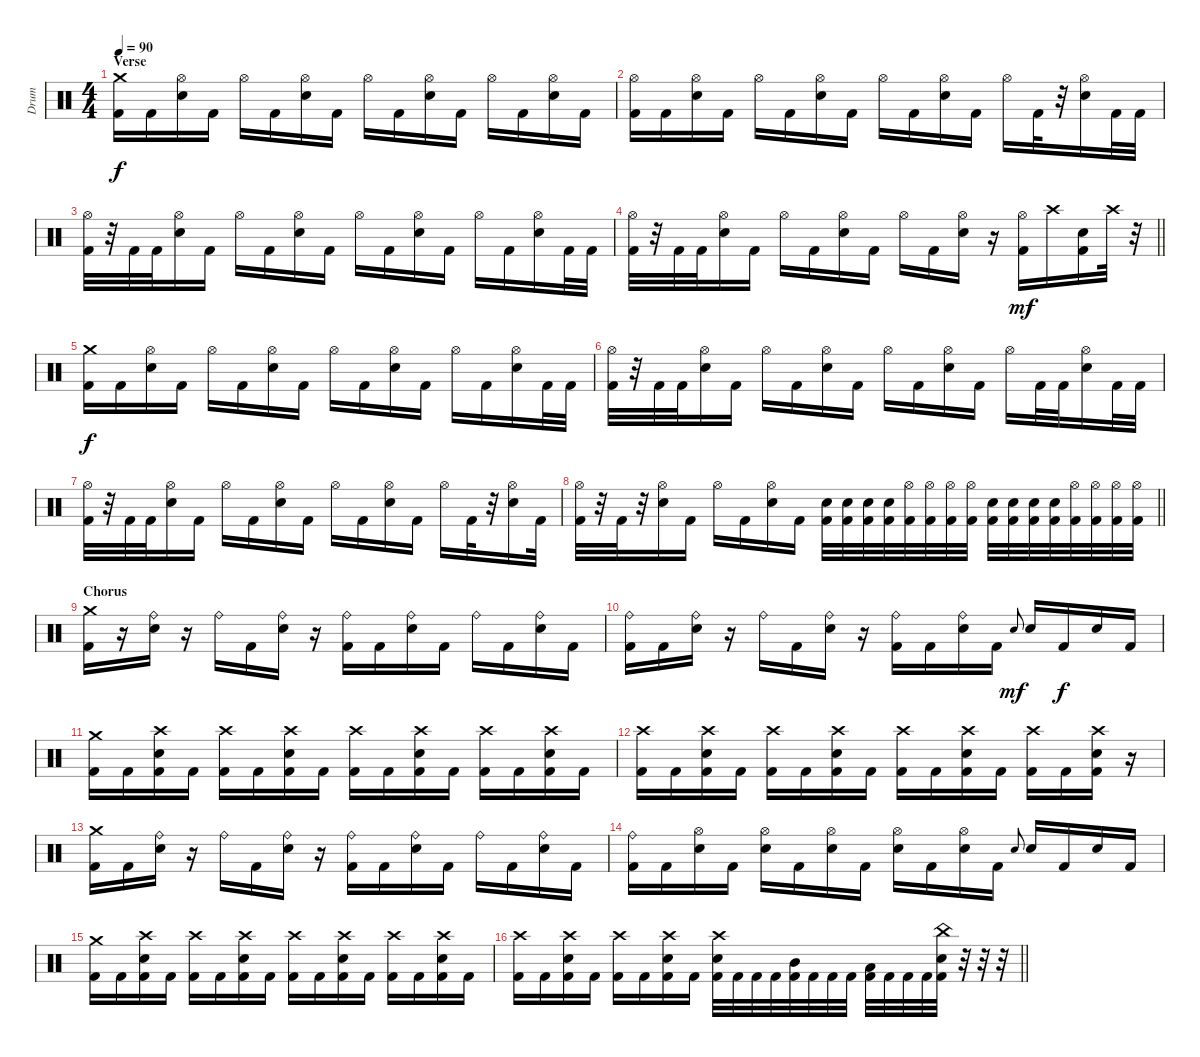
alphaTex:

\track ("Drum" "Drum") {instrument percussion}
\staff {score}
\articulation defaults
\ts (4 4)
\section ("" "Verse")
\tempo 90
\clef neutral
\ks c
("Crash medium (hit)" "Kick (hit) 2").16{dy f} "Kick (hit) 2".16 ("Hi-Hat (open)" "Electric Snare (hit)").16 "Kick (hit) 2".16 "Hi-Hat (open)".16 "Kick (hit) 2".16 ("Hi-Hat (open)" "Electric Snare (hit)").16 "Kick (hit) 2".16 "Hi-Hat (open)".16 "Kick (hit) 2".16 ("Hi-Hat (open)" "Electric Snare (hit)").16 "Kick (hit) 2".16 "Hi-Hat (open)".16 "Kick (hit) 2".16 ("Hi-Hat (open)" "Electric Snare (hit)").16 "Kick (hit) 2".16 |
("Hi-Hat (open)" "Kick (hit) 2").16 "Kick (hit) 2".16 ("Hi-Hat (open)" "Electric Snare (hit)").16 "Kick (hit) 2".16 "Hi-Hat (open)".16 "Kick (hit) 2".16 ("Hi-Hat (open)" "Electric Snare (hit)").16 "Kick (hit) 2".16 "Hi-Hat (open)".16 "Kick (hit) 2".16 ("Hi-Hat (open)" "Electric Snare (hit)").16 "Kick (hit) 2".16 "Hi-Hat (open)".16 "Kick (hit) 2".32 r.32 ("Hi-Hat (open)" "Electric Snare (hit)").16 "Kick (hit) 2".32 "Kick (hit) 2".32 |
("Hi-Hat (open)" "Kick (hit) 2").32 r.32 "Kick (hit) 2".32 "Kick (hit) 2".32 ("Hi-Hat (open)" "Electric Snare (hit)").16 "Kick (hit) 2".16 "Hi-Hat (open)".16 "Kick (hit) 2".16 ("Hi-Hat (open)" "Electric Snare (hit)").16 "Kick (hit) 2".16 "Hi-Hat (open)".16 "Kick (hit) 2".16 ("Hi-Hat (open)" "Electric Snare (hit)").16 "Kick (hit) 2".16 "Hi-Hat (open)".16 "Kick (hit) 2".16 ("Hi-Hat (open)" "Electric Snare (hit)").16 "Kick (hit) 2".32 "Kick (hit) 2".32 |
\barLineRight lightlight
("Hi-Hat (open)" "Kick (hit) 2").32 r.32 "Kick (hit) 2".32 "Kick (hit) 2".32 ("Hi-Hat (open)" "Electric Snare (hit)").16 "Kick (hit) 2".16 "Hi-Hat (open)".16 "Kick (hit) 2".16 ("Hi-Hat (open)" "Electric Snare (hit)").16 "Kick (hit) 2".16 "Hi-Hat (open)".16 "Kick (hit) 2".16 ("Hi-Hat (open)" "Electric Snare (hit)").16 r.16 ("Hi-Hat (open)" "Kick (hit) 2").16{dy mf} "Crash high (hit)".16 ("Electric Snare (hit)" "Kick (hit) 2").16 "Crash high (hit)".32 r.32 |
("Crash medium (hit)" "Kick (hit) 2").16{dy f} "Kick (hit) 2".16 ("Hi-Hat (open)" "Electric Snare (hit)").16 "Kick (hit) 2".16 "Hi-Hat (open)".16 "Kick (hit) 2".16 ("Hi-Hat (open)" "Electric Snare (hit)").16 "Kick (hit) 2".16 "Hi-Hat (open)".16 "Kick (hit) 2".16 ("Hi-Hat (open)" "Electric Snare (hit)").16 "Kick (hit) 2".16 "Hi-Hat (open)".16 "Kick (hit) 2".16 ("Hi-Hat (open)" "Electric Snare (hit)").16 "Kick (hit) 2".32 "Kick (hit) 2".32 |
("Hi-Hat (open)" "Kick (hit) 2").32 r.32 "Kick (hit) 2".32 "Kick (hit) 2".32 ("Hi-Hat (open)" "Electric Snare (hit)").16 "Kick (hit) 2".16 "Hi-Hat (open)".16 "Kick (hit) 2".16 ("Hi-Hat (open)" "Electric Snare (hit)").16 "Kick (hit) 2".16 "Hi-Hat (open)".16 "Kick (hit) 2".16 ("Hi-Hat (open)" "Electric Snare (hit)").16 "Kick (hit) 2".16 "Hi-Hat (open)".16 "Kick (hit) 2".32 "Kick (hit) 2".32 ("Hi-Hat (open)" "Electric Snare (hit)").16 "Kick (hit) 2".32 "Kick (hit) 2".32 |
("Hi-Hat (open)" "Kick (hit) 2").32 r.32 "Kick (hit) 2".32 "Kick (hit) 2".32 ("Hi-Hat (open)" "Electric Snare (hit)").16 "Kick (hit) 2".16 "Hi-Hat (open)".16 "Kick (hit) 2".16 ("Hi-Hat (open)" "Electric Snare (hit)").16 "Kick (hit) 2".16 "Hi-Hat (open)".16 "Kick (hit) 2".16 ("Hi-Hat (open)" "Electric Snare (hit)").16 "Kick (hit) 2".16 "Hi-Hat (open)".16 "Kick (hit) 2".32 r.32 ("Hi-Hat (open)" "Electric Snare (hit)").16 "Kick (hit) 2".32 |
\barLineRight lightlight
("Hi-Hat (open)" "Kick (hit) 2").32 r.32 "Kick (hit) 2".32 r.32 ("Hi-Hat (open)" "Electric Snare (hit)").16 "Kick (hit) 2".16 "Hi-Hat (open)".16 "Kick (hit) 2".16 ("Hi-Hat (open)" "Electric Snare (hit)").16 "Kick (hit) 2".16 ("Electric Snare (hit)" "Kick (hit) 2").32 ("Electric Snare (hit)" "Kick (hit) 2").32 ("Electric Snare (hit)" "Kick (hit) 2").32 ("Electric Snare (hit)" "Kick (hit) 2").32 ("Hi-Hat (open)" "Kick (hit) 2").32 ("Hi-Hat (open)" "Kick (hit) 2").32 ("Hi-Hat (open)" "Kick (hit) 2").32 ("Hi-Hat (open)" "Kick (hit) 2").32 ("Electric Snare (hit)" "Kick (hit) 2").32 ("Electric Snare (hit)" "Kick (hit) 2").32 ("Electric Snare (hit)" "Kick (hit) 2").32 ("Electric Snare (hit)" "Kick (hit) 2").32 ("Hi-Hat (open)" "Kick (hit) 2").32 ("Hi-Hat (open)" "Kick (hit) 2").32 ("Hi-Hat (open)" "Kick (hit) 2").32 ("Hi-Hat (open)" "Kick (hit) 2").32 |
\section ("" "Chorus")
("Crash medium (hit)" "Kick (hit) 2").16 r.16 ("Ride (bell)" "Electric Snare (hit)").16 r.16 "Ride (bell)".16 "Kick (hit) 2".16 ("Ride (bell)" "Electric Snare (hit)").16 r.16 ("Ride (bell)" "Kick (hit) 2").16 "Kick (hit) 2".16 ("Ride (bell)" "Electric Snare (hit)").16 "Kick (hit) 2".16 "Ride (bell)".16 "Kick (hit) 2".16 ("Ride (bell)" "Electric Snare (hit)").16 "Kick (hit) 2".16 |
("Ride (bell)" "Kick (hit) 2").16 "Kick (hit) 2".16 ("Ride (bell)" "Electric Snare (hit)").16 r.16 "Ride (bell)".16 "Kick (hit) 2".16 ("Ride (bell)" "Electric Snare (hit)").16 r.16 ("Ride (bell)" "Kick (hit) 2").16 "Kick (hit) 2".16 ("Ride (bell)" "Electric Snare (hit)").16 "Kick (hit) 2".16 "Electric Snare (hit)".8{gr onbeat dy mf} "Electric Snare (hit)".16 "Kick (hit) 2".16{dy f} "Electric Snare (hit)".16 "Kick (hit) 2".16 |
("Crash medium (hit)" "Kick (hit) 2").16 "Kick (hit) 2".16 ("Crash high (hit)" "Electric Snare (hit)" "Kick (hit) 2").16 "Kick (hit) 2".16 ("Crash high (hit)" "Kick (hit) 2").16 "Kick (hit) 2".16 ("Crash high (hit)" "Electric Snare (hit)" "Kick (hit) 2").16 "Kick (hit) 2".16 ("Crash high (hit)" "Kick (hit) 2").16 "Kick (hit) 2".16 ("Crash high (hit)" "Electric Snare (hit)" "Kick (hit) 2").16 "Kick (hit) 2".16 ("Crash high (hit)" "Kick (hit) 2").16 "Kick (hit) 2".16 ("Crash high (hit)" "Electric Snare (hit)" "Kick (hit) 2").16 "Kick (hit) 2".16 |
("Crash high (hit)" "Kick (hit) 2").16 "Kick (hit) 2".16 ("Crash high (hit)" "Electric Snare (hit)" "Kick (hit) 2").16 "Kick (hit) 2".16 ("Crash high (hit)" "Kick (hit) 2").16 "Kick (hit) 2".16 ("Crash high (hit)" "Electric Snare (hit)" "Kick (hit) 2").16 "Kick (hit) 2".16 ("Crash high (hit)" "Kick (hit) 2").16 "Kick (hit) 2".16 ("Crash high (hit)" "Electric Snare (hit)" "Kick (hit) 2").16 "Kick (hit) 2".16 ("Crash high (hit)" "Kick (hit) 2").16 "Kick (hit) 2".16 ("Crash high (hit)" "Electric Snare (hit)" "Kick (hit) 2").16 r.16 |
("Crash medium (hit)" "Kick (hit) 2").16 "Kick (hit) 2".16 ("Ride (bell)" "Electric Snare (hit)").16 r.16 "Ride (bell)".16 "Kick (hit) 2".16 ("Ride (bell)" "Electric Snare (hit)").16 r.16 ("Ride (bell)" "Kick (hit) 2").16 "Kick (hit) 2".16 ("Ride (bell)" "Electric Snare (hit)").16 "Kick (hit) 2".16 "Ride (bell)".16 "Kick (hit) 2".16 ("Ride (bell)" "Electric Snare (hit)").16 "Kick (hit) 2".16 |
("Ride (bell)" "Kick (hit) 2").16 "Kick (hit) 2".16 ("Hi-Hat (open)" "Electric Snare (hit)").16 "Kick (hit) 2".16 ("Hi-Hat (open)" "Electric Snare (hit)").16 "Kick (hit) 2".16 ("Hi-Hat (open)" "Electric Snare (hit)").16 "Kick (hit) 2".16 ("Hi-Hat (open)" "Electric Snare (hit)").16 "Kick (hit) 2".16 ("Hi-Hat (open)" "Electric Snare (hit)").16 "Kick (hit) 2".16 "Electric Snare (hit)".8{gr onbeat} "Electric Snare (hit)".16 "Kick (hit) 2".16 "Electric Snare (hit)".16 "Kick (hit) 2".16 |
("Crash medium (hit)" "Kick (hit) 2").16 "Kick (hit) 2".16 ("Crash high (hit)" "Electric Snare (hit)" "Kick (hit) 2").16 "Kick (hit) 2".16 ("Crash high (hit)" "Kick (hit) 2").16 "Kick (hit) 2".16 ("Crash high (hit)" "Electric Snare (hit)" "Kick (hit) 2").16 "Kick (hit) 2".16 ("Crash high (hit)" "Kick (hit) 2").16 "Kick (hit) 2".16 ("Crash high (hit)" "Electric Snare (hit)" "Kick (hit) 2").16 "Kick (hit) 2".16 ("Crash high (hit)" "Kick (hit) 2").16 "Kick (hit) 2".16 ("Crash high (hit)" "Electric Snare (hit)" "Kick (hit) 2").16 "Kick (hit) 2".16 |
\barLineRight lightlight
("Crash high (hit)" "Kick (hit) 2").16 "Kick (hit) 2".16 ("Crash high (hit)" "Electric Snare (hit)" "Kick (hit) 2").16 "Kick (hit) 2".16 ("Crash high (hit)" "Kick (hit) 2").16 "Kick (hit) 2".16 ("Crash high (hit)" "Electric Snare (hit)" "Kick (hit) 2").16 "Kick (hit) 2".16 ("Crash high (hit)" "Electric Snare (hit)" "Kick (hit) 2").32 "Kick (hit) 2".32 "Kick (hit) 2".32 "Kick (hit) 2".32 ("Mid Tom (hit)" "Kick (hit) 2").32 "Kick (hit) 2".32 "Kick (hit) 2".32 "Kick (hit) 2".32 ("Low Tom (hit)" "Kick (hit) 2").32 "Kick (hit) 2".32 "Kick (hit) 2".32 "Kick (hit) 2".32 ("China (hit)" "Electric Snare (hit)" "Kick (hit) 2").32 r.32 r.32 r.32
